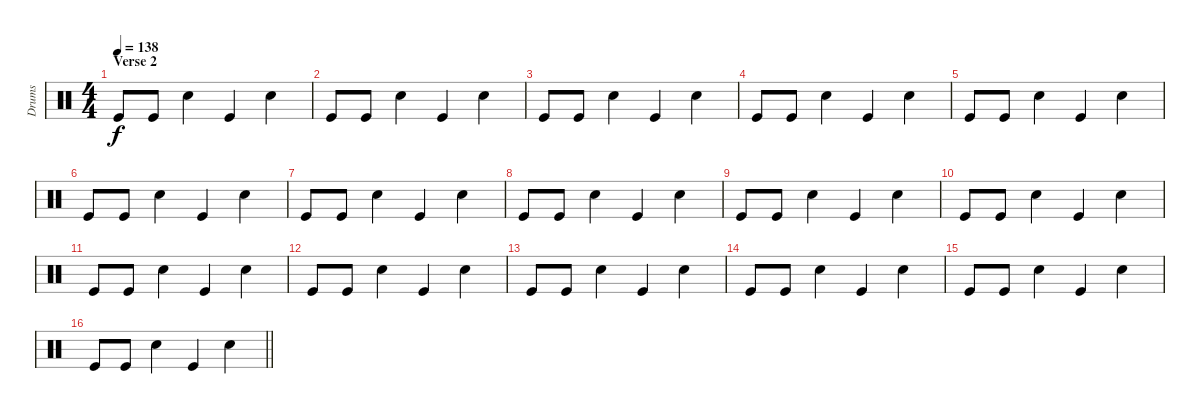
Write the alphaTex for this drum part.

\track ("Drums" "Drums") {instrument percussion}
\staff {score}
\articulation defaults
\ts (4 4)
\section ("" "Verse 2")
\tempo 138
\clef neutral
\ks c "Kick (hit)".8{dy f} "Kick (hit)".8 "Snare (hit) 2".4 "Kick (hit)".4 "Snare (hit) 2".4
|
"Kick (hit)".8 "Kick (hit)".8 "Snare (hit) 2".4 "Kick (hit)".4 "Snare (hit) 2".4 |
"Kick (hit)".8 "Kick (hit)".8 "Snare (hit) 2".4 "Kick (hit)".4 "Snare (hit) 2".4 |
"Kick (hit)".8 "Kick (hit)".8 "Snare (hit) 2".4 "Kick (hit)".4 "Snare (hit) 2".4 |
"Kick (hit)".8 "Kick (hit)".8 "Snare (hit) 2".4 "Kick (hit)".4 "Snare (hit) 2".4 |
"Kick (hit)".8 "Kick (hit)".8 "Snare (hit) 2".4 "Kick (hit)".4 "Snare (hit) 2".4 |
"Kick (hit)".8 "Kick (hit)".8 "Snare (hit) 2".4 "Kick (hit)".4 "Snare (hit) 2".4 |
"Kick (hit)".8 "Kick (hit)".8 "Snare (hit) 2".4 "Kick (hit)".4 "Snare (hit) 2".4 |
"Kick (hit)".8 "Kick (hit)".8 "Snare (hit) 2".4 "Kick (hit)".4 "Snare (hit) 2".4 |
"Kick (hit)".8 "Kick (hit)".8 "Snare (hit) 2".4 "Kick (hit)".4 "Snare (hit) 2".4 |
"Kick (hit)".8 "Kick (hit)".8 "Snare (hit) 2".4 "Kick (hit)".4 "Snare (hit) 2".4 |
"Kick (hit)".8 "Kick (hit)".8 "Snare (hit) 2".4 "Kick (hit)".4 "Snare (hit) 2".4 |
"Kick (hit)".8 "Kick (hit)".8 "Snare (hit) 2".4 "Kick (hit)".4 "Snare (hit) 2".4 |
"Kick (hit)".8 "Kick (hit)".8 "Snare (hit) 2".4 "Kick (hit)".4 "Snare (hit) 2".4 |
"Kick (hit)".8 "Kick (hit)".8 "Snare (hit) 2".4 "Kick (hit)".4 "Snare (hit) 2".4 |
\barLineRight lightlight "Kick (hit)".8 "Kick (hit)".8 "Snare (hit) 2".4 "Kick (hit)".4 "Snare (hit) 2".4
